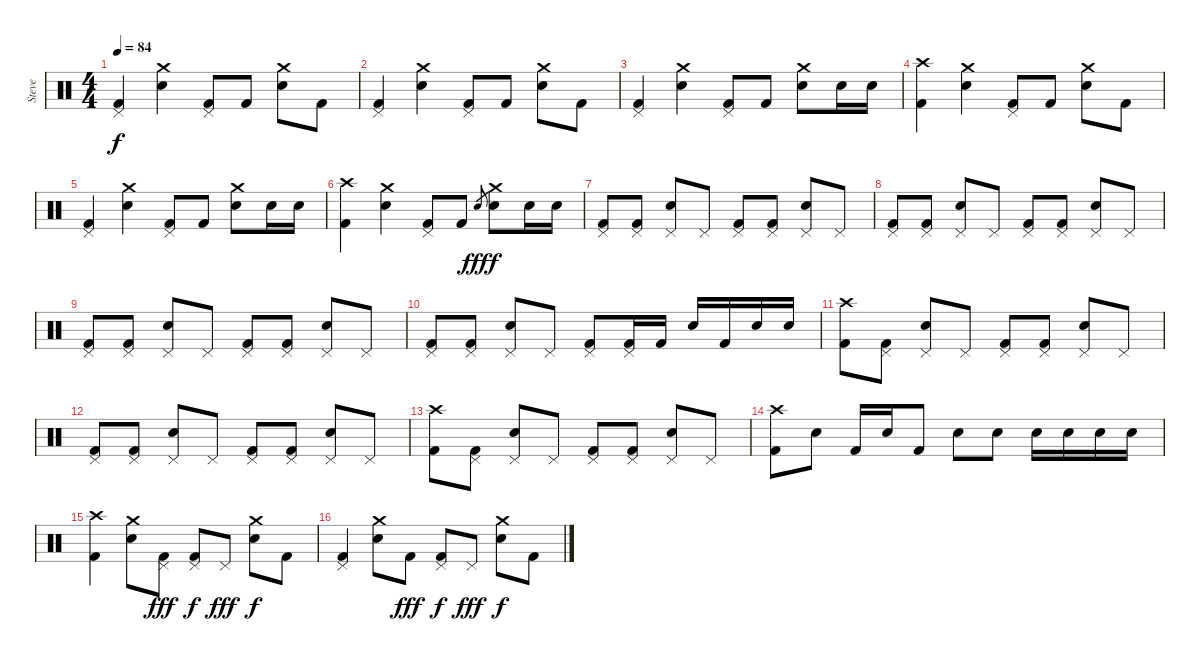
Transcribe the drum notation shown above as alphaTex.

\track ("Steve" "Steve") {instrument percussion}
\staff {score}
\articulation defaults
\ts (4 4)
\tempo 84
\clef neutral
\ks c
("Pedal Hi-Hat (hit)" "Kick (hit) 2").4{dy f} ("Crash medium (hit)" "Snare (hit) 2").4 ("Pedal Hi-Hat (hit)" "Kick (hit) 2").8 "Kick (hit) 2".8 ("Crash medium (hit)" "Snare (hit) 2").8 "Kick (hit) 2".8 |
("Pedal Hi-Hat (hit)" "Kick (hit) 2").4 ("Crash medium (hit)" "Snare (hit) 2").4 ("Pedal Hi-Hat (hit)" "Kick (hit) 2").8 "Kick (hit) 2".8 ("Crash medium (hit)" "Snare (hit) 2").8 "Kick (hit) 2".8 |
("Pedal Hi-Hat (hit)" "Kick (hit) 2").4 ("Crash medium (hit)" "Snare (hit) 2").4 ("Pedal Hi-Hat (hit)" "Kick (hit) 2").8 "Kick (hit) 2".8 ("Crash medium (hit)" "Snare (hit) 2").8 "Snare (hit) 2".16 "Snare (hit) 2".16 |
("Crash high (hit)" "Kick (hit) 2").4 ("Crash medium (hit)" "Snare (hit) 2").4 ("Pedal Hi-Hat (hit)" "Kick (hit) 2").8 "Kick (hit) 2".8 ("Crash medium (hit)" "Snare (hit) 2").8 "Kick (hit) 2".8 |
("Pedal Hi-Hat (hit)" "Kick (hit) 2").4 ("Crash medium (hit)" "Snare (hit) 2").4 ("Pedal Hi-Hat (hit)" "Kick (hit) 2").8 "Kick (hit) 2".8 ("Crash medium (hit)" "Snare (hit) 2").8 "Snare (hit) 2".16 "Snare (hit) 2".16 |
("Crash high (hit)" "Kick (hit) 2").4 ("Crash medium (hit)" "Snare (hit) 2").4 ("Pedal Hi-Hat (hit)" "Kick (hit) 2").8 "Kick (hit) 2".8 "Snare (hit) 2".8{gr dy fff} ("Crash medium (hit)" "Snare (hit) 2").8{dy f} "Snare (hit) 2".16 "Snare (hit) 2".16 |
("Pedal Hi-Hat (hit)" "Kick (hit) 2").8 ("Pedal Hi-Hat (hit)" "Kick (hit) 2").8 ("Pedal Hi-Hat (hit)" "Snare (hit) 2").8 "Pedal Hi-Hat (hit)".8 ("Pedal Hi-Hat (hit)" "Kick (hit) 2").8 ("Pedal Hi-Hat (hit)" "Kick (hit) 2").8 ("Pedal Hi-Hat (hit)" "Snare (hit) 2").8 "Pedal Hi-Hat (hit)".8 |
("Pedal Hi-Hat (hit)" "Kick (hit) 2").8 ("Pedal Hi-Hat (hit)" "Kick (hit) 2").8 ("Pedal Hi-Hat (hit)" "Snare (hit) 2").8 "Pedal Hi-Hat (hit)".8 ("Pedal Hi-Hat (hit)" "Kick (hit) 2").8 ("Pedal Hi-Hat (hit)" "Kick (hit) 2").8 ("Pedal Hi-Hat (hit)" "Snare (hit) 2").8 "Pedal Hi-Hat (hit)".8 |
("Pedal Hi-Hat (hit)" "Kick (hit) 2").8 ("Pedal Hi-Hat (hit)" "Kick (hit) 2").8 ("Pedal Hi-Hat (hit)" "Snare (hit) 2").8 "Pedal Hi-Hat (hit)".8 ("Pedal Hi-Hat (hit)" "Kick (hit) 2").8 ("Pedal Hi-Hat (hit)" "Kick (hit) 2").8 ("Pedal Hi-Hat (hit)" "Snare (hit) 2").8 "Pedal Hi-Hat (hit)".8 |
("Pedal Hi-Hat (hit)" "Kick (hit) 2").8 ("Pedal Hi-Hat (hit)" "Kick (hit) 2").8 ("Pedal Hi-Hat (hit)" "Snare (hit) 2").8 "Pedal Hi-Hat (hit)".8 ("Pedal Hi-Hat (hit)" "Kick (hit) 2").8 ("Pedal Hi-Hat (hit)" "Kick (hit) 2").16 "Kick (hit) 2".16 "Snare (hit) 2".16 "Kick (hit) 2".16 "Snare (hit) 2".16 "Snare (hit) 2".16 |
("Crash high (hit)" "Kick (hit) 2").8 ("Pedal Hi-Hat (hit)" "Kick (hit) 2").8 ("Pedal Hi-Hat (hit)" "Snare (hit) 2").8 "Pedal Hi-Hat (hit)".8 ("Pedal Hi-Hat (hit)" "Kick (hit) 2").8 ("Pedal Hi-Hat (hit)" "Kick (hit) 2").8 ("Pedal Hi-Hat (hit)" "Snare (hit) 2").8 "Pedal Hi-Hat (hit)".8 |
("Pedal Hi-Hat (hit)" "Kick (hit) 2").8 ("Pedal Hi-Hat (hit)" "Kick (hit) 2").8 ("Pedal Hi-Hat (hit)" "Snare (hit) 2").8 "Pedal Hi-Hat (hit)".8 ("Pedal Hi-Hat (hit)" "Kick (hit) 2").8 ("Pedal Hi-Hat (hit)" "Kick (hit) 2").8 ("Pedal Hi-Hat (hit)" "Snare (hit) 2").8 "Pedal Hi-Hat (hit)".8 |
("Crash high (hit)" "Kick (hit) 2").8 ("Pedal Hi-Hat (hit)" "Kick (hit) 2").8 ("Pedal Hi-Hat (hit)" "Snare (hit) 2").8 "Pedal Hi-Hat (hit)".8 ("Pedal Hi-Hat (hit)" "Kick (hit) 2").8 ("Pedal Hi-Hat (hit)" "Kick (hit) 2").8 ("Pedal Hi-Hat (hit)" "Snare (hit) 2").8 "Pedal Hi-Hat (hit)".8 |
("Crash high (hit)" "Kick (hit) 2").8 "Snare (hit) 2".8 "Kick (hit) 2".16 "Snare (hit) 2".16 "Kick (hit) 2".8 "Snare (hit) 2".8 "Snare (hit) 2".8 "Snare (hit) 2".16 "Snare (hit) 2".16 "Snare (hit) 2".16 "Snare (hit) 2".16 |
("Crash high (hit)" "Kick (hit) 2").4 ("Crash medium (hit)" "Snare (hit) 2").8 ("Pedal Hi-Hat (hit)" "Kick (hit) 2").8{dy fff} ("Pedal Hi-Hat (hit)" "Kick (hit) 2").8{dy f} "Pedal Hi-Hat (hit)".8{dy fff} ("Crash medium (hit)" "Snare (hit) 2").8{dy f} "Kick (hit) 2".8 |
("Pedal Hi-Hat (hit)" "Kick (hit) 2").4 ("Crash medium (hit)" "Snare (hit) 2").8 "Kick (hit) 2".8{dy fff} ("Pedal Hi-Hat (hit)" "Kick (hit) 2").8{dy f} "Pedal Hi-Hat (hit)".8{dy fff} ("Crash medium (hit)" "Snare (hit) 2").8{dy f} "Kick (hit) 2".8
